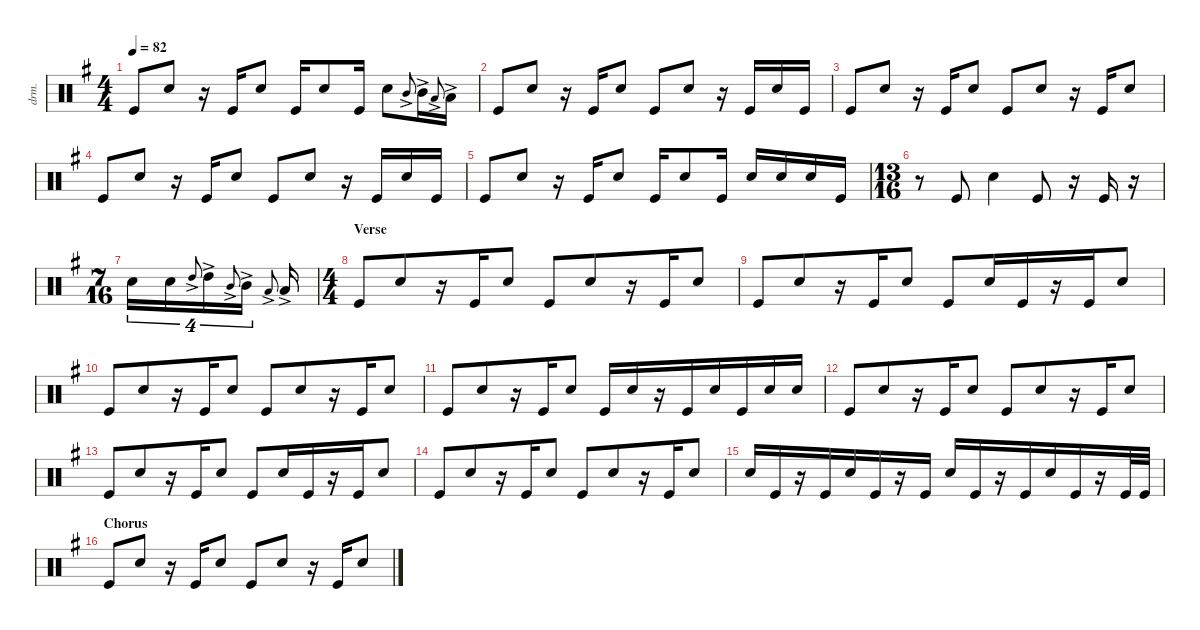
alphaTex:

\defaultSystemsLayout 2
\hideDynamics
\bracketExtendMode nobrackets
\otherSystemsTrackNameOrientation horizontal
\track ("Drums" "drm.") {instrument percussion}
\staff {score}
\articulation defaults
\ts (4 4)
\tempo 82
\clef neutral
\ks g "Kick (hit)".8{dy f} "Snare (hit) 2".8
r.16 "Kick (hit)".16 "Snare (hit) 2".8 "Kick (hit)".16 "Snare (hit) 2".8 "Kick (hit)".16 "Snare (hit) 2".8 "Mid Tom (hit)"{ac}.8{gr onbeat} "Mid Tom (hit)"{ac}.16 "Low Tom (hit)"{ac}.8{gr onbeat} "Low Tom (hit)"{ac}.16 |
"Kick (hit)".8 "Snare (hit) 2".8 r.16 "Kick (hit)".16 "Snare (hit) 2".8 "Kick (hit)".8 "Snare (hit) 2".8 r.16 "Kick (hit)".16 "Snare (hit) 2".16 "Kick (hit)".16 |
"Kick (hit)".8 "Snare (hit) 2".8 r.16 "Kick (hit)".16 "Snare (hit) 2".8 "Kick (hit)".8 "Snare (hit) 2".8 r.16 "Kick (hit)".16 "Snare (hit) 2".8 |
"Kick (hit)".8 "Snare (hit) 2".8 r.16 "Kick (hit)".16 "Snare (hit) 2".8 "Kick (hit)".8 "Snare (hit) 2".8 r.16 "Kick (hit)".16 "Snare (hit) 2".16 "Kick (hit)".16 |
"Kick (hit)".8 "Snare (hit) 2".8 r.16 "Kick (hit)".16 "Snare (hit) 2".8 "Kick (hit)".16 "Snare (hit) 2".8 "Kick (hit)".16 "Snare (hit) 2".16 "Snare (hit) 2".16 "Snare (hit) 2".16 "Kick (hit)".16 |
\ts (13 16)
\beaming (16 3 3 3 3 1)
r.8 "Kick (hit)".8 "Snare (hit) 2".4 "Kick (hit)".8 r.16 "Kick (hit)".16 r.16 |
\ts (7 16)
\beaming (16 7)
"Snare (hit) 2".16{tu (4 6)} "Snare (hit) 2".16{tu (4 6)} "High Tom (hit)"{ac}.8{tu (4 6) gr onbeat dy mf} "High Tom (hit)"{ac}.16{tu (4 6) dy f} "Mid Tom (hit)"{ac}.8{tu (4 6) gr onbeat} "Mid Tom (hit)"{ac}.16{tu (4 6)} "Low Tom (hit)"{ac}.8{tu (5 4) gr onbeat} "Low Tom (hit)"{ac}.16 |
\ts (4 4)
\beaming (8 4 4)
\section ("" "Verse")
"Kick (hit)".8 "Snare (hit) 2".8 r.16 "Kick (hit)".16 "Snare (hit) 2".8 "Kick (hit)".8 "Snare (hit) 2".8 r.16 "Kick (hit)".16 "Snare (hit) 2".8 |
"Kick (hit)".8 "Snare (hit) 2".8 r.16 "Kick (hit)".16 "Snare (hit) 2".8 "Kick (hit)".8 "Snare (hit) 2".16 "Kick (hit)".16 r.16 "Kick (hit)".16 "Snare (hit) 2".8 |
"Kick (hit)".8 "Snare (hit) 2".8 r.16 "Kick (hit)".16 "Snare (hit) 2".8 "Kick (hit)".8 "Snare (hit) 2".8 r.16 "Kick (hit)".16 "Snare (hit) 2".8 |
"Kick (hit)".8 "Snare (hit) 2".8 r.16 "Kick (hit)".16 "Snare (hit) 2".8 "Kick (hit)".16 "Snare (hit) 2".16 r.16 "Kick (hit)".16 "Snare (hit) 2".16 "Kick (hit)".16 "Snare (hit) 2".16 "Snare (hit) 2".16 |
"Kick (hit)".8 "Snare (hit) 2".8 r.16 "Kick (hit)".16 "Snare (hit) 2".8 "Kick (hit)".8 "Snare (hit) 2".8 r.16 "Kick (hit)".16 "Snare (hit) 2".8 |
"Kick (hit)".8 "Snare (hit) 2".8 r.16 "Kick (hit)".16 "Snare (hit) 2".8 "Kick (hit)".8 "Snare (hit) 2".16 "Kick (hit)".16 r.16 "Kick (hit)".16 "Snare (hit) 2".8 |
"Kick (hit)".8 "Snare (hit) 2".8 r.16 "Kick (hit)".16 "Snare (hit) 2".8 "Kick (hit)".8 "Snare (hit) 2".8 r.16 "Kick (hit)".16 "Snare (hit) 2".8 |
"Snare (hit) 2".16 "Kick (hit)".16 r.16 "Kick (hit)".16 "Snare (hit) 2".16 "Kick (hit)".16 r.16 "Kick (hit)".16 "Snare (hit) 2".16 "Kick (hit)".16 r.16 "Kick (hit)".16 "Snare (hit) 2".16 "Kick (hit)".16 r.16 "Kick (hit)".32 "Kick (hit)".32 |
\beaming (8 2 2 2 2)
\section ("" "Chorus")
"Kick (hit)".8 "Snare (hit) 2".8 r.16 "Kick (hit)".16 "Snare (hit) 2".8 "Kick (hit)".8 "Snare (hit) 2".8 r.16 "Kick (hit)".16 "Snare (hit) 2".8
